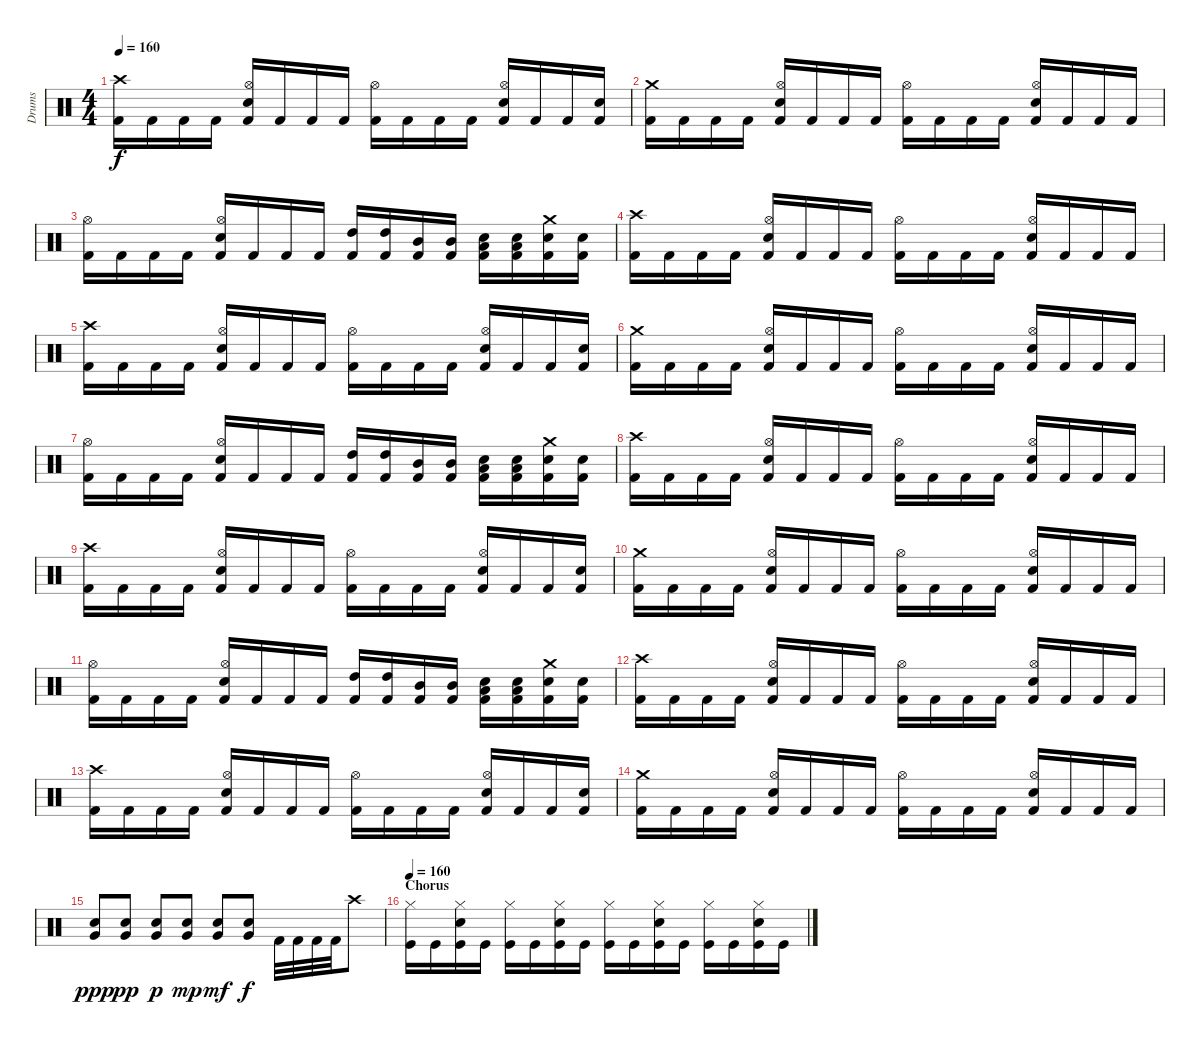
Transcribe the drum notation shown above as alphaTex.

\track ("Drums" "Drums") {instrument percussion}
\staff {score}
\articulation defaults
\ts (4 4)
\tempo 160
\clef neutral
\ks c
("Crash high (hit)" "Kick (hit) 2").16{dy f} "Kick (hit) 2".16 "Kick (hit) 2".16 "Kick (hit) 2".16 ("Hi-Hat (open)" "Electric Snare (hit)" "Kick (hit) 2").16 "Kick (hit) 2".16 "Kick (hit) 2".16 "Kick (hit) 2".16 ("Hi-Hat (open)" "Kick (hit) 2").16 "Kick (hit) 2".16 "Kick (hit) 2".16 "Kick (hit) 2".16 ("Hi-Hat (open)" "Electric Snare (hit)" "Kick (hit) 2").16 "Kick (hit) 2".16 "Kick (hit) 2".16 ("Electric Snare (hit)" "Kick (hit) 2").16 |
("Crash medium (hit)" "Kick (hit) 2").16 "Kick (hit) 2".16 "Kick (hit) 2".16 "Kick (hit) 2".16 ("Hi-Hat (open)" "Electric Snare (hit)" "Kick (hit) 2").16 "Kick (hit) 2".16 "Kick (hit) 2".16 "Kick (hit) 2".16 ("Hi-Hat (open)" "Kick (hit) 2").16 "Kick (hit) 2".16 "Kick (hit) 2".16 "Kick (hit) 2".16 ("Hi-Hat (open)" "Electric Snare (hit)" "Kick (hit) 2").16 "Kick (hit) 2".16 "Kick (hit) 2".16 "Kick (hit) 2".16 |
("Hi-Hat (open)" "Kick (hit) 2").16 "Kick (hit) 2".16 "Kick (hit) 2".16 "Kick (hit) 2".16 ("Hi-Hat (open)" "Electric Snare (hit)" "Kick (hit) 2").16 "Kick (hit) 2".16 "Kick (hit) 2".16 "Kick (hit) 2".16 ("High Tom (hit)" "Kick (hit) 2").16 ("High Tom (hit)" "Kick (hit) 2").16 ("Mid Tom (hit)" "Kick (hit) 2").16 ("Mid Tom (hit)" "Kick (hit) 2").16 ("Low Tom (hit)" "Electric Snare (hit)" "Kick (hit) 2").16 ("Low Floor Tom (hit)" "Electric Snare (hit)" "Kick (hit) 2").16 ("Crash medium (hit)" "Electric Snare (hit)" "Kick (hit) 2").16 ("Electric Snare (hit)" "Kick (hit) 2").16 |
("Crash high (hit)" "Kick (hit) 2").16 "Kick (hit) 2".16 "Kick (hit) 2".16 "Kick (hit) 2".16 ("Hi-Hat (open)" "Electric Snare (hit)" "Kick (hit) 2").16 "Kick (hit) 2".16 "Kick (hit) 2".16 "Kick (hit) 2".16 ("Hi-Hat (open)" "Kick (hit) 2").16 "Kick (hit) 2".16 "Kick (hit) 2".16 "Kick (hit) 2".16 ("Hi-Hat (open)" "Electric Snare (hit)" "Kick (hit) 2").16 "Kick (hit) 2".16 "Kick (hit) 2".16 "Kick (hit) 2".16 |
("Crash high (hit)" "Kick (hit) 2").16 "Kick (hit) 2".16 "Kick (hit) 2".16 "Kick (hit) 2".16 ("Hi-Hat (open)" "Electric Snare (hit)" "Kick (hit) 2").16 "Kick (hit) 2".16 "Kick (hit) 2".16 "Kick (hit) 2".16 ("Hi-Hat (open)" "Kick (hit) 2").16 "Kick (hit) 2".16 "Kick (hit) 2".16 "Kick (hit) 2".16 ("Hi-Hat (open)" "Electric Snare (hit)" "Kick (hit) 2").16 "Kick (hit) 2".16 "Kick (hit) 2".16 ("Electric Snare (hit)" "Kick (hit) 2").16 |
("Crash medium (hit)" "Kick (hit) 2").16 "Kick (hit) 2".16 "Kick (hit) 2".16 "Kick (hit) 2".16 ("Hi-Hat (open)" "Electric Snare (hit)" "Kick (hit) 2").16 "Kick (hit) 2".16 "Kick (hit) 2".16 "Kick (hit) 2".16 ("Hi-Hat (open)" "Kick (hit) 2").16 "Kick (hit) 2".16 "Kick (hit) 2".16 "Kick (hit) 2".16 ("Hi-Hat (open)" "Electric Snare (hit)" "Kick (hit) 2").16 "Kick (hit) 2".16 "Kick (hit) 2".16 "Kick (hit) 2".16 |
("Hi-Hat (open)" "Kick (hit) 2").16 "Kick (hit) 2".16 "Kick (hit) 2".16 "Kick (hit) 2".16 ("Hi-Hat (open)" "Electric Snare (hit)" "Kick (hit) 2").16 "Kick (hit) 2".16 "Kick (hit) 2".16 "Kick (hit) 2".16 ("High Tom (hit)" "Kick (hit) 2").16 ("High Tom (hit)" "Kick (hit) 2").16 ("Mid Tom (hit)" "Kick (hit) 2").16 ("Mid Tom (hit)" "Kick (hit) 2").16 ("Low Tom (hit)" "Electric Snare (hit)" "Kick (hit) 2").16 ("Low Floor Tom (hit)" "Electric Snare (hit)" "Kick (hit) 2").16 ("Crash medium (hit)" "Electric Snare (hit)" "Kick (hit) 2").16 ("Electric Snare (hit)" "Kick (hit) 2").16 |
("Crash high (hit)" "Kick (hit) 2").16 "Kick (hit) 2".16 "Kick (hit) 2".16 "Kick (hit) 2".16 ("Hi-Hat (open)" "Electric Snare (hit)" "Kick (hit) 2").16 "Kick (hit) 2".16 "Kick (hit) 2".16 "Kick (hit) 2".16 ("Hi-Hat (open)" "Kick (hit) 2").16 "Kick (hit) 2".16 "Kick (hit) 2".16 "Kick (hit) 2".16 ("Hi-Hat (open)" "Electric Snare (hit)" "Kick (hit) 2").16 "Kick (hit) 2".16 "Kick (hit) 2".16 "Kick (hit) 2".16 |
("Crash high (hit)" "Kick (hit) 2").16 "Kick (hit) 2".16 "Kick (hit) 2".16 "Kick (hit) 2".16 ("Hi-Hat (open)" "Electric Snare (hit)" "Kick (hit) 2").16 "Kick (hit) 2".16 "Kick (hit) 2".16 "Kick (hit) 2".16 ("Hi-Hat (open)" "Kick (hit) 2").16 "Kick (hit) 2".16 "Kick (hit) 2".16 "Kick (hit) 2".16 ("Hi-Hat (open)" "Electric Snare (hit)" "Kick (hit) 2").16 "Kick (hit) 2".16 "Kick (hit) 2".16 ("Electric Snare (hit)" "Kick (hit) 2").16 |
("Crash medium (hit)" "Kick (hit) 2").16 "Kick (hit) 2".16 "Kick (hit) 2".16 "Kick (hit) 2".16 ("Hi-Hat (open)" "Electric Snare (hit)" "Kick (hit) 2").16 "Kick (hit) 2".16 "Kick (hit) 2".16 "Kick (hit) 2".16 ("Hi-Hat (open)" "Kick (hit) 2").16 "Kick (hit) 2".16 "Kick (hit) 2".16 "Kick (hit) 2".16 ("Hi-Hat (open)" "Electric Snare (hit)" "Kick (hit) 2").16 "Kick (hit) 2".16 "Kick (hit) 2".16 "Kick (hit) 2".16 |
("Hi-Hat (open)" "Kick (hit) 2").16 "Kick (hit) 2".16 "Kick (hit) 2".16 "Kick (hit) 2".16 ("Hi-Hat (open)" "Electric Snare (hit)" "Kick (hit) 2").16 "Kick (hit) 2".16 "Kick (hit) 2".16 "Kick (hit) 2".16 ("High Tom (hit)" "Kick (hit) 2").16 ("High Tom (hit)" "Kick (hit) 2").16 ("Mid Tom (hit)" "Kick (hit) 2").16 ("Mid Tom (hit)" "Kick (hit) 2").16 ("Low Tom (hit)" "Electric Snare (hit)" "Kick (hit) 2").16 ("Low Floor Tom (hit)" "Electric Snare (hit)" "Kick (hit) 2").16 ("Crash medium (hit)" "Electric Snare (hit)" "Kick (hit) 2").16 ("Electric Snare (hit)" "Kick (hit) 2").16 |
("Crash high (hit)" "Kick (hit) 2").16 "Kick (hit) 2".16 "Kick (hit) 2".16 "Kick (hit) 2".16 ("Hi-Hat (open)" "Electric Snare (hit)" "Kick (hit) 2").16 "Kick (hit) 2".16 "Kick (hit) 2".16 "Kick (hit) 2".16 ("Hi-Hat (open)" "Kick (hit) 2").16 "Kick (hit) 2".16 "Kick (hit) 2".16 "Kick (hit) 2".16 ("Hi-Hat (open)" "Electric Snare (hit)" "Kick (hit) 2").16 "Kick (hit) 2".16 "Kick (hit) 2".16 "Kick (hit) 2".16 |
("Crash high (hit)" "Kick (hit) 2").16 "Kick (hit) 2".16 "Kick (hit) 2".16 "Kick (hit) 2".16 ("Hi-Hat (open)" "Electric Snare (hit)" "Kick (hit) 2").16 "Kick (hit) 2".16 "Kick (hit) 2".16 "Kick (hit) 2".16 ("Hi-Hat (open)" "Kick (hit) 2").16 "Kick (hit) 2".16 "Kick (hit) 2".16 "Kick (hit) 2".16 ("Hi-Hat (open)" "Electric Snare (hit)" "Kick (hit) 2").16 "Kick (hit) 2".16 "Kick (hit) 2".16 ("Electric Snare (hit)" "Kick (hit) 2").16 |
("Crash medium (hit)" "Kick (hit) 2").16 "Kick (hit) 2".16 "Kick (hit) 2".16 "Kick (hit) 2".16 ("Hi-Hat (open)" "Electric Snare (hit)" "Kick (hit) 2").16 "Kick (hit) 2".16 "Kick (hit) 2".16 "Kick (hit) 2".16 ("Hi-Hat (open)" "Kick (hit) 2").16 "Kick (hit) 2".16 "Kick (hit) 2".16 "Kick (hit) 2".16 ("Hi-Hat (open)" "Electric Snare (hit)" "Kick (hit) 2").16 "Kick (hit) 2".16 "Kick (hit) 2".16 "Kick (hit) 2".16 |
("Very Low Tom (hit)" "Electric Snare (hit)").8{dy ppp} ("Very Low Tom (hit)" "Electric Snare (hit)").8{dy pp} ("Very Low Tom (hit)" "Electric Snare (hit)").8{dy p} ("Very Low Tom (hit)" "Electric Snare (hit)").8{dy mp} ("Very Low Tom (hit)" "Electric Snare (hit)").8{dy mf} ("Very Low Tom (hit)" "Electric Snare (hit)").8{dy f} "Kick (hit) 2".32 "Kick (hit) 2".32 "Kick (hit) 2".32 "Kick (hit) 2".32 "Crash high (hit)".8 |
\section ("" "Chorus")
\tempo 160
("Hi-Hat (closed)" "Kick (hit)").16 "Kick (hit)".16 ("Hi-Hat (closed)" "Electric Snare (hit)" "Kick (hit)").16 "Kick (hit)".16 ("Hi-Hat (closed)" "Kick (hit)").16 "Kick (hit)".16 ("Hi-Hat (closed)" "Electric Snare (hit)" "Kick (hit)").16 "Kick (hit)".16 ("Hi-Hat (closed)" "Kick (hit)").16 "Kick (hit)".16 ("Hi-Hat (closed)" "Electric Snare (hit)" "Kick (hit)").16 "Kick (hit)".16 ("Hi-Hat (closed)" "Kick (hit)").16 "Kick (hit)".16 ("Hi-Hat (closed)" "Electric Snare (hit)" "Kick (hit)").16 "Kick (hit)".16
